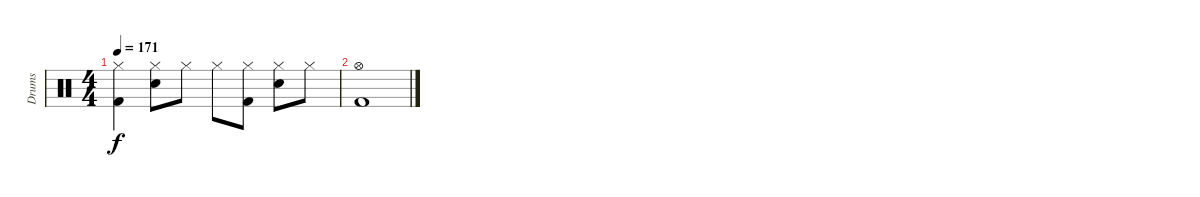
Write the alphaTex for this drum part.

\track ("Drums" "Drums") {instrument percussion}
\staff {score}
\articulation defaults
\ts (4 4)
\tempo 171
\clef neutral
\ks c
("Hi-Hat (closed)" "Kick (hit) 2").4{dy f} ("Hi-Hat (closed)" "Electric Snare (hit)").8 "Hi-Hat (closed)".8 "Hi-Hat (closed)".8 ("Hi-Hat (closed)" "Kick (hit) 2").8 ("Hi-Hat (closed)" "Electric Snare (hit)").8 "Hi-Hat (closed)".8 |
("Hi-Hat (open)" "Kick (hit) 2").1
